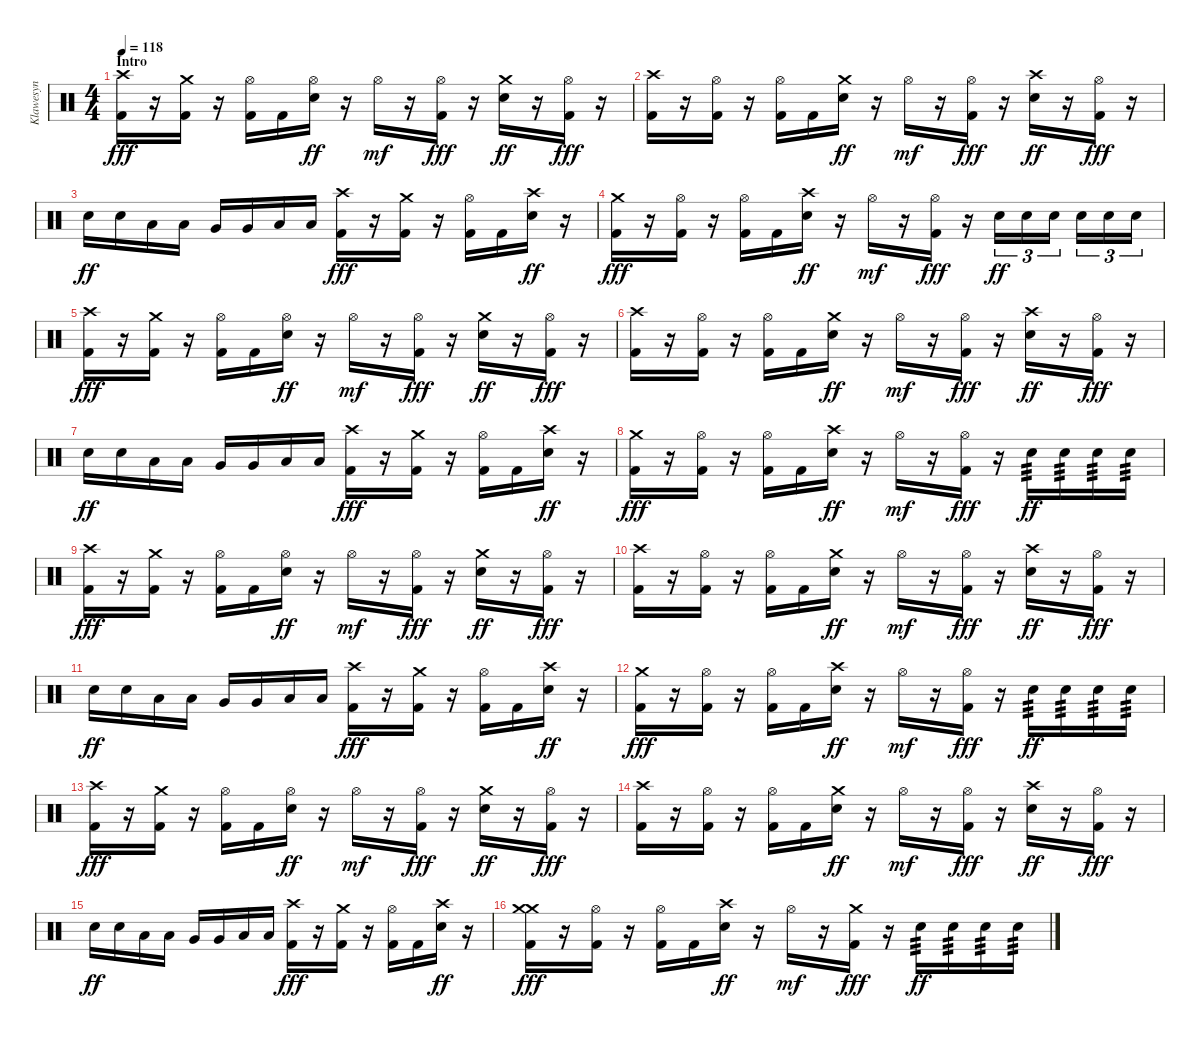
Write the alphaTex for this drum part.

\track ("Klawesyn" "Klawesyn") {instrument percussion}
\staff {score}
\articulation defaults
\ts (4 4)
\section ("" "Intro")
\tempo 118
\clef neutral
\ks c
("Crash high (hit)" "Kick (hit) 2").16{dy fff} r.16 ("Crash medium (hit)" "Kick (hit) 2").16 r.16 ("Hi-Hat (open)" "Kick (hit) 2").16 "Kick (hit) 2".16 ("Hi-Hat (open)" "Electric Snare (hit)").16{dy ff} r.16 "Hi-Hat (open)".16{dy mf} r.16 ("Hi-Hat (open)" "Kick (hit) 2").16{dy fff} r.16 ("Crash medium (hit)" "Electric Snare (hit)").16{dy ff} r.16 ("Hi-Hat (open)" "Kick (hit) 2").16{dy fff} r.16 |
("Crash high (hit)" "Kick (hit) 2").16 r.16 ("Hi-Hat (open)" "Kick (hit) 2").16 r.16 ("Hi-Hat (open)" "Kick (hit) 2").16 "Kick (hit) 2".16 ("Crash medium (hit)" "Electric Snare (hit)").16{dy ff} r.16 "Hi-Hat (open)".16{dy mf} r.16 ("Hi-Hat (open)" "Kick (hit) 2").16{dy fff} r.16 ("Crash high (hit)" "Electric Snare (hit)").16{dy ff} r.16 ("Hi-Hat (open)" "Kick (hit) 2").16{dy fff} r.16 |
"Electric Snare (hit)".16{dy ff} "Electric Snare (hit)".16 "Low Tom (hit)".16 "Low Tom (hit)".16 "Very Low Tom (hit)".16 "Very Low Tom (hit)".16 "Low Floor Tom (hit)".16 "Low Floor Tom (hit)".16 ("Crash high (hit)" "Kick (hit) 2").16{dy fff} r.16 ("Crash medium (hit)" "Kick (hit) 2").16 r.16 ("Hi-Hat (open)" "Kick (hit) 2").16 "Kick (hit) 2".16 ("Crash high (hit)" "Electric Snare (hit)").16{dy ff} r.16 |
("Crash medium (hit)" "Kick (hit) 2").16{dy fff} r.16 ("Hi-Hat (open)" "Kick (hit) 2").16 r.16 ("Hi-Hat (open)" "Kick (hit) 2").16 "Kick (hit) 2".16 ("Crash high (hit)" "Electric Snare (hit)").16{dy ff} r.16 "Hi-Hat (open)".16{dy mf} r.16 ("Hi-Hat (open)" "Kick (hit) 2").16{dy fff} r.16 "Electric Snare (hit)".16{tu (3 2) dy ff} "Electric Snare (hit)".16{tu (3 2)} "Electric Snare (hit)".16{tu (3 2) beam splitsecondary} "Electric Snare (hit)".16{tu (3 2)} "Electric Snare (hit)".16{tu (3 2)} "Electric Snare (hit)".16{tu (3 2)} |
("Crash high (hit)" "Kick (hit) 2").16{dy fff} r.16 ("Crash medium (hit)" "Kick (hit) 2").16 r.16 ("Hi-Hat (open)" "Kick (hit) 2").16 "Kick (hit) 2".16 ("Hi-Hat (open)" "Electric Snare (hit)").16{dy ff} r.16 "Hi-Hat (open)".16{dy mf} r.16 ("Hi-Hat (open)" "Kick (hit) 2").16{dy fff} r.16 ("Crash medium (hit)" "Electric Snare (hit)").16{dy ff} r.16 ("Hi-Hat (open)" "Kick (hit) 2").16{dy fff} r.16 |
("Crash high (hit)" "Kick (hit) 2").16 r.16 ("Hi-Hat (open)" "Kick (hit) 2").16 r.16 ("Hi-Hat (open)" "Kick (hit) 2").16 "Kick (hit) 2".16 ("Crash medium (hit)" "Electric Snare (hit)").16{dy ff} r.16 "Hi-Hat (open)".16{dy mf} r.16 ("Hi-Hat (open)" "Kick (hit) 2").16{dy fff} r.16 ("Crash high (hit)" "Electric Snare (hit)").16{dy ff} r.16 ("Hi-Hat (open)" "Kick (hit) 2").16{dy fff} r.16 |
"Electric Snare (hit)".16{dy ff} "Electric Snare (hit)".16 "Low Tom (hit)".16 "Low Tom (hit)".16 "Very Low Tom (hit)".16 "Very Low Tom (hit)".16 "Low Floor Tom (hit)".16 "Low Floor Tom (hit)".16 ("Crash high (hit)" "Kick (hit) 2").16{dy fff} r.16 ("Crash medium (hit)" "Kick (hit) 2").16 r.16 ("Hi-Hat (open)" "Kick (hit) 2").16 "Kick (hit) 2".16 ("Crash high (hit)" "Electric Snare (hit)").16{dy ff} r.16 |
("Crash medium (hit)" "Kick (hit) 2").16{dy fff} r.16 ("Hi-Hat (open)" "Kick (hit) 2").16 r.16 ("Hi-Hat (open)" "Kick (hit) 2").16 "Kick (hit) 2".16 ("Crash high (hit)" "Electric Snare (hit)").16{dy ff} r.16 "Hi-Hat (open)".16{dy mf} r.16 ("Hi-Hat (open)" "Kick (hit) 2").16{dy fff} r.16 "Electric Snare (hit)".16{tp 3 dy ff} "Electric Snare (hit)".16{tp 3} "Electric Snare (hit)".16{tp 3} "Electric Snare (hit)".16{tp 3} |
("Crash high (hit)" "Kick (hit) 2").16{dy fff} r.16 ("Crash medium (hit)" "Kick (hit) 2").16 r.16 ("Hi-Hat (open)" "Kick (hit) 2").16 "Kick (hit) 2".16 ("Hi-Hat (open)" "Electric Snare (hit)").16{dy ff} r.16 "Hi-Hat (open)".16{dy mf} r.16 ("Hi-Hat (open)" "Kick (hit) 2").16{dy fff} r.16 ("Crash medium (hit)" "Electric Snare (hit)").16{dy ff} r.16 ("Hi-Hat (open)" "Kick (hit) 2").16{dy fff} r.16 |
("Crash high (hit)" "Kick (hit) 2").16 r.16 ("Hi-Hat (open)" "Kick (hit) 2").16 r.16 ("Hi-Hat (open)" "Kick (hit) 2").16 "Kick (hit) 2".16 ("Crash medium (hit)" "Electric Snare (hit)").16{dy ff} r.16 "Hi-Hat (open)".16{dy mf} r.16 ("Hi-Hat (open)" "Kick (hit) 2").16{dy fff} r.16 ("Crash high (hit)" "Electric Snare (hit)").16{dy ff} r.16 ("Hi-Hat (open)" "Kick (hit) 2").16{dy fff} r.16 |
"Electric Snare (hit)".16{dy ff} "Electric Snare (hit)".16 "Low Tom (hit)".16 "Low Tom (hit)".16 "Very Low Tom (hit)".16 "Very Low Tom (hit)".16 "Low Floor Tom (hit)".16 "Low Floor Tom (hit)".16 ("Crash high (hit)" "Kick (hit) 2").16{dy fff} r.16 ("Crash medium (hit)" "Kick (hit) 2").16 r.16 ("Hi-Hat (open)" "Kick (hit) 2").16 "Kick (hit) 2".16 ("Crash high (hit)" "Electric Snare (hit)").16{dy ff} r.16 |
("Crash medium (hit)" "Kick (hit) 2").16{dy fff} r.16 ("Hi-Hat (open)" "Kick (hit) 2").16 r.16 ("Hi-Hat (open)" "Kick (hit) 2").16 "Kick (hit) 2".16 ("Crash high (hit)" "Electric Snare (hit)").16{dy ff} r.16 "Hi-Hat (open)".16{dy mf} r.16 ("Hi-Hat (open)" "Kick (hit) 2").16{dy fff} r.16 "Electric Snare (hit)".16{tp 3 dy ff} "Electric Snare (hit)".16{tp 3} "Electric Snare (hit)".16{tp 3} "Electric Snare (hit)".16{tp 3} |
("Crash high (hit)" "Kick (hit) 2").16{dy fff} r.16 ("Crash medium (hit)" "Kick (hit) 2").16 r.16 ("Hi-Hat (open)" "Kick (hit) 2").16 "Kick (hit) 2".16 ("Hi-Hat (open)" "Electric Snare (hit)").16{dy ff} r.16 "Hi-Hat (open)".16{dy mf} r.16 ("Hi-Hat (open)" "Kick (hit) 2").16{dy fff} r.16 ("Crash medium (hit)" "Electric Snare (hit)").16{dy ff} r.16 ("Hi-Hat (open)" "Kick (hit) 2").16{dy fff} r.16 |
("Crash high (hit)" "Kick (hit) 2").16 r.16 ("Hi-Hat (open)" "Kick (hit) 2").16 r.16 ("Hi-Hat (open)" "Kick (hit) 2").16 "Kick (hit) 2".16 ("Crash medium (hit)" "Electric Snare (hit)").16{dy ff} r.16 "Hi-Hat (open)".16{dy mf} r.16 ("Hi-Hat (open)" "Kick (hit) 2").16{dy fff} r.16 ("Crash high (hit)" "Electric Snare (hit)").16{dy ff} r.16 ("Hi-Hat (open)" "Kick (hit) 2").16{dy fff} r.16 |
"Electric Snare (hit)".16{dy ff} "Electric Snare (hit)".16 "Low Tom (hit)".16 "Low Tom (hit)".16 "Very Low Tom (hit)".16 "Very Low Tom (hit)".16 "Low Floor Tom (hit)".16 "Low Floor Tom (hit)".16 ("Crash high (hit)" "Kick (hit) 2").16{dy fff} r.16 ("Crash medium (hit)" "Kick (hit) 2").16 r.16 ("Hi-Hat (open)" "Kick (hit) 2").16 "Kick (hit) 2".16 ("Crash high (hit)" "Electric Snare (hit)").16{dy ff} r.16 |
("Crash medium (hit)" "Crash medium (hit)" "Kick (hit) 2").16{dy fff} r.16 ("Hi-Hat (open)" "Kick (hit) 2").16 r.16 ("Hi-Hat (open)" "Kick (hit) 2").16 "Kick (hit) 2".16 ("Crash high (hit)" "Electric Snare (hit)").16{dy ff} r.16 "Hi-Hat (open)".16{dy mf} r.16 ("Crash medium (hit)" "Kick (hit) 2").16{dy fff} r.16 "Electric Snare (hit)".16{tp 3 dy ff} "Electric Snare (hit)".16{tp 3} "Electric Snare (hit)".16{tp 3} "Electric Snare (hit)".16{tp 3}
